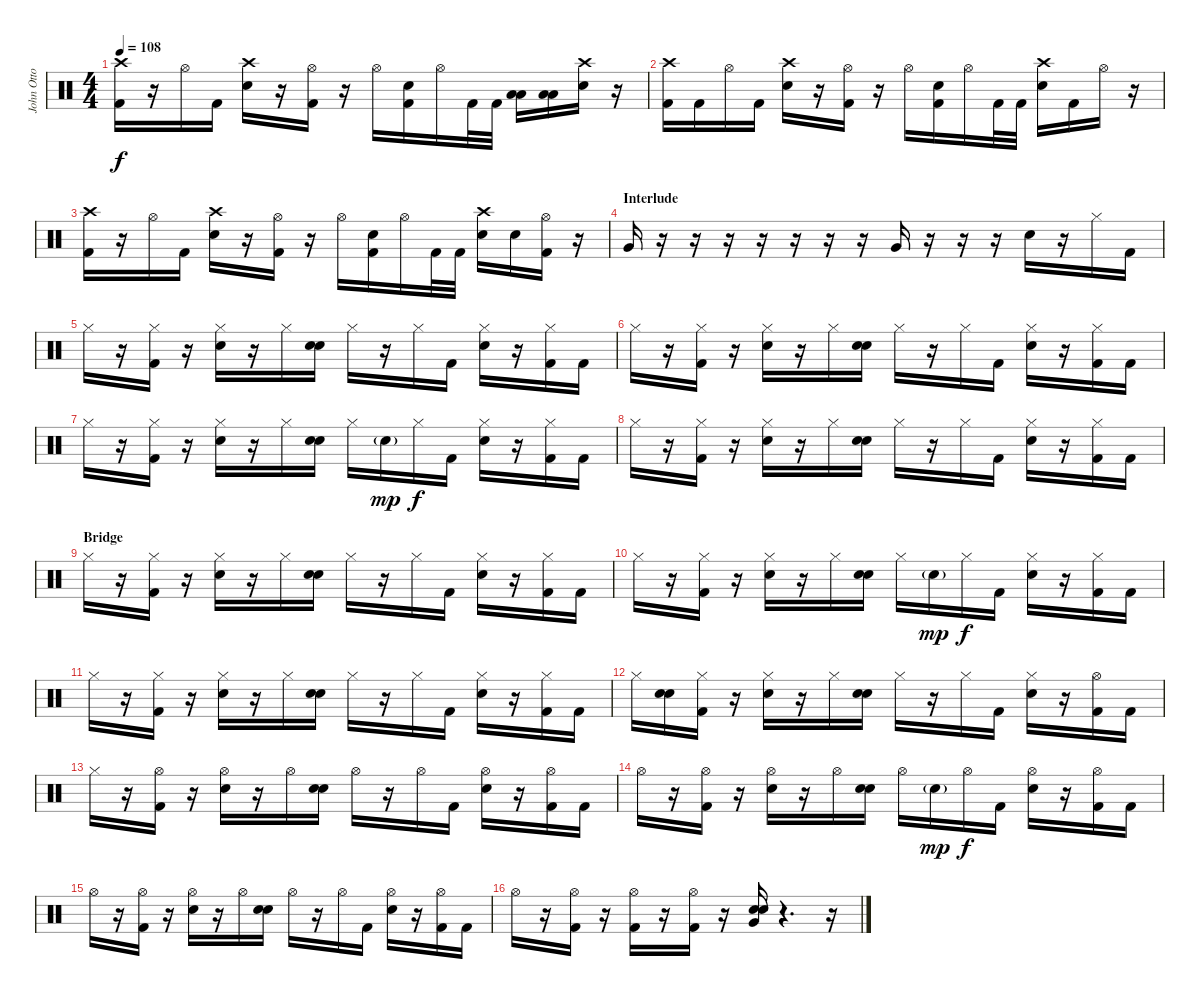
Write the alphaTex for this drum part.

\track ("John Otto" "John Otto") {instrument percussion}
\staff {score}
\articulation defaults
\ts (4 4)
\tempo 108
\clef neutral
\ks c
("Crash high (hit)" "Kick (hit) 2").16{dy f} r.16 "Hi-Hat (open)".16 "Kick (hit) 2".16 ("Crash high (hit)" "Snare (hit) 2").16 r.16 ("Hi-Hat (open)" "Kick (hit) 2").16 r.16 "Hi-Hat (open)".16 ("Snare (hit) 2" "Kick (hit) 2").16 "Hi-Hat (open)".16 "Kick (hit) 2".32 "Kick (hit) 2".32 ("Low Floor Tom (hit)" "Low Tom (hit)").16 ("Low Floor Tom (hit)" "Low Tom (hit)").16 ("Crash high (hit)" "Snare (hit) 2").16 r.16 |
("Crash high (hit)" "Kick (hit) 2").16 "Kick (hit) 2".16 "Hi-Hat (open)".16 "Kick (hit) 2".16 ("Crash high (hit)" "Snare (hit) 2").16 r.16 ("Hi-Hat (open)" "Kick (hit) 2").16 r.16 "Hi-Hat (open)".16 ("Snare (hit) 2" "Kick (hit) 2").16 "Hi-Hat (open)".16 "Kick (hit) 2".32 "Kick (hit) 2".32 ("Crash high (hit)" "Snare (hit) 2").16 "Kick (hit) 2".16 "Hi-Hat (open)".16 r.16 |
("Crash high (hit)" "Kick (hit) 2").16 r.16 "Hi-Hat (open)".16 "Kick (hit) 2".16 ("Crash high (hit)" "Snare (hit) 2").16 r.16 ("Hi-Hat (open)" "Kick (hit) 2").16 r.16 "Hi-Hat (open)".16 ("Snare (hit) 2" "Kick (hit) 2").16 "Hi-Hat (open)".16 "Kick (hit) 2".32 "Kick (hit) 2".32 ("Crash high (hit)" "Snare (hit) 2").16 "Snare (hit) 2".16 ("Hi-Hat (open)" "Kick (hit) 2").16 r.16 |
\section ("" "Interlude")
"Very Low Tom (hit)".16 r.16 r.16 r.16 r.16 r.16 r.16 r.16 "Very Low Tom (hit)".16 r.16 r.16 r.16 "Snare (hit) 2".16 r.16 "Hi-Hat (closed)".16 "Kick (hit) 2".16 |
"Hi-Hat (closed)".16 r.16 ("Hi-Hat (closed)" "Kick (hit) 2").16 r.16 ("Hi-Hat (closed)" "Snare (hit) 2").16 r.16 "Hi-Hat (closed)".16 ("Snare (hit) 2" "Snare (hit) 2").16 "Hi-Hat (closed)".16 r.16 "Hi-Hat (closed)".16 "Kick (hit) 2".16 ("Hi-Hat (closed)" "Snare (hit) 2").16 r.16 ("Hi-Hat (closed)" "Kick (hit) 2").16 "Kick (hit) 2".16 |
"Hi-Hat (closed)".16 r.16 ("Hi-Hat (closed)" "Kick (hit) 2").16 r.16 ("Hi-Hat (closed)" "Snare (hit) 2").16 r.16 "Hi-Hat (closed)".16 ("Snare (hit) 2" "Snare (hit) 2").16 "Hi-Hat (closed)".16 r.16 "Hi-Hat (closed)".16 "Kick (hit) 2".16 ("Hi-Hat (closed)" "Snare (hit) 2").16 r.16 ("Hi-Hat (closed)" "Kick (hit) 2").16 "Kick (hit) 2".16 |
"Hi-Hat (closed)".16 r.16 ("Hi-Hat (closed)" "Kick (hit) 2").16 r.16 ("Hi-Hat (closed)" "Snare (hit) 2").16 r.16 "Hi-Hat (closed)".16 ("Snare (hit) 2" "Snare (hit) 2").16 "Hi-Hat (closed)".16 "Snare (hit) 2"{g}.16{dy mp} "Hi-Hat (closed)".16{dy f} "Kick (hit) 2".16 ("Hi-Hat (closed)" "Snare (hit) 2").16 r.16 ("Hi-Hat (closed)" "Kick (hit) 2").16 "Kick (hit) 2".16 |
"Hi-Hat (closed)".16 r.16 ("Hi-Hat (closed)" "Kick (hit) 2").16 r.16 ("Hi-Hat (closed)" "Snare (hit) 2").16 r.16 "Hi-Hat (closed)".16 ("Snare (hit) 2" "Snare (hit) 2").16 "Hi-Hat (closed)".16 r.16 "Hi-Hat (closed)".16 "Kick (hit) 2".16 ("Hi-Hat (closed)" "Snare (hit) 2").16 r.16 ("Hi-Hat (closed)" "Kick (hit) 2").16 "Kick (hit) 2".16 |
\section ("" "Bridge")
"Hi-Hat (closed)".16 r.16 ("Hi-Hat (closed)" "Kick (hit) 2").16 r.16 ("Hi-Hat (closed)" "Snare (hit) 2").16 r.16 "Hi-Hat (closed)".16 ("Snare (hit) 2" "Snare (hit) 2").16 "Hi-Hat (closed)".16 r.16 "Hi-Hat (closed)".16 "Kick (hit) 2".16 ("Hi-Hat (closed)" "Snare (hit) 2").16 r.16 ("Hi-Hat (closed)" "Kick (hit) 2").16 "Kick (hit) 2".16 |
"Hi-Hat (closed)".16 r.16 ("Hi-Hat (closed)" "Kick (hit) 2").16 r.16 ("Hi-Hat (closed)" "Snare (hit) 2").16 r.16 "Hi-Hat (closed)".16 ("Snare (hit) 2" "Snare (hit) 2").16 "Hi-Hat (closed)".16 "Snare (hit) 2"{g}.16{dy mp} "Hi-Hat (closed)".16{dy f} "Kick (hit) 2".16 ("Hi-Hat (closed)" "Snare (hit) 2").16 r.16 ("Hi-Hat (closed)" "Kick (hit) 2").16 "Kick (hit) 2".16 |
"Hi-Hat (closed)".16 r.16 ("Hi-Hat (closed)" "Kick (hit) 2").16 r.16 ("Hi-Hat (closed)" "Snare (hit) 2").16 r.16 "Hi-Hat (closed)".16 ("Snare (hit) 2" "Snare (hit) 2").16 "Hi-Hat (closed)".16 r.16 "Hi-Hat (closed)".16 "Kick (hit) 2".16 ("Hi-Hat (closed)" "Snare (hit) 2").16 r.16 ("Hi-Hat (closed)" "Kick (hit) 2").16 "Kick (hit) 2".16 |
"Hi-Hat (closed)".16 ("Snare (hit) 2" "Snare (hit) 2").16 ("Hi-Hat (closed)" "Kick (hit) 2").16 r.16 ("Hi-Hat (closed)" "Snare (hit) 2").16 r.16 "Hi-Hat (closed)".16 ("Snare (hit) 2" "Snare (hit) 2").16 "Hi-Hat (closed)".16 r.16 "Hi-Hat (closed)".16 "Kick (hit) 2".16 ("Hi-Hat (closed)" "Snare (hit) 2").16 r.16 ("Hi-Hat (open)" "Kick (hit) 2").16 "Kick (hit) 2".16 |
"Hi-Hat (closed)".16 r.16 ("Hi-Hat (open)" "Kick (hit) 2").16 r.16 ("Hi-Hat (open)" "Snare (hit) 2").16 r.16 "Hi-Hat (open)".16 ("Snare (hit) 2" "Snare (hit) 2").16 "Hi-Hat (open)".16 r.16 "Hi-Hat (open)".16 "Kick (hit) 2".16 ("Hi-Hat (open)" "Snare (hit) 2").16 r.16 ("Hi-Hat (open)" "Kick (hit) 2").16 "Kick (hit) 2".16 |
"Hi-Hat (open)".16 r.16 ("Hi-Hat (open)" "Kick (hit) 2").16 r.16 ("Hi-Hat (open)" "Snare (hit) 2").16 r.16 "Hi-Hat (open)".16 ("Snare (hit) 2" "Snare (hit) 2").16 "Hi-Hat (open)".16 "Snare (hit) 2"{g}.16{dy mp} "Hi-Hat (open)".16{dy f} "Kick (hit) 2".16 ("Hi-Hat (open)" "Snare (hit) 2").16 r.16 ("Hi-Hat (open)" "Kick (hit) 2").16 "Kick (hit) 2".16 |
"Hi-Hat (open)".16 r.16 ("Hi-Hat (open)" "Kick (hit) 2").16 r.16 ("Hi-Hat (open)" "Snare (hit) 2").16 r.16 "Hi-Hat (open)".16 ("Snare (hit) 2" "Snare (hit) 2").16 "Hi-Hat (open)".16 r.16 "Hi-Hat (open)".16 "Kick (hit) 2".16 ("Hi-Hat (open)" "Snare (hit) 2").16 r.16 ("Hi-Hat (open)" "Kick (hit) 2").16 "Kick (hit) 2".16 |
"Hi-Hat (open)".16 r.16 ("Hi-Hat (open)" "Kick (hit) 2").16 r.16 ("Hi-Hat (open)" "Kick (hit) 2").16 r.16 ("Hi-Hat (open)" "Kick (hit) 2").16 r.16 ("Snare (hit) 2" "Snare (hit) 2" "Very Low Tom (hit)").16 r.4{d} r.16
